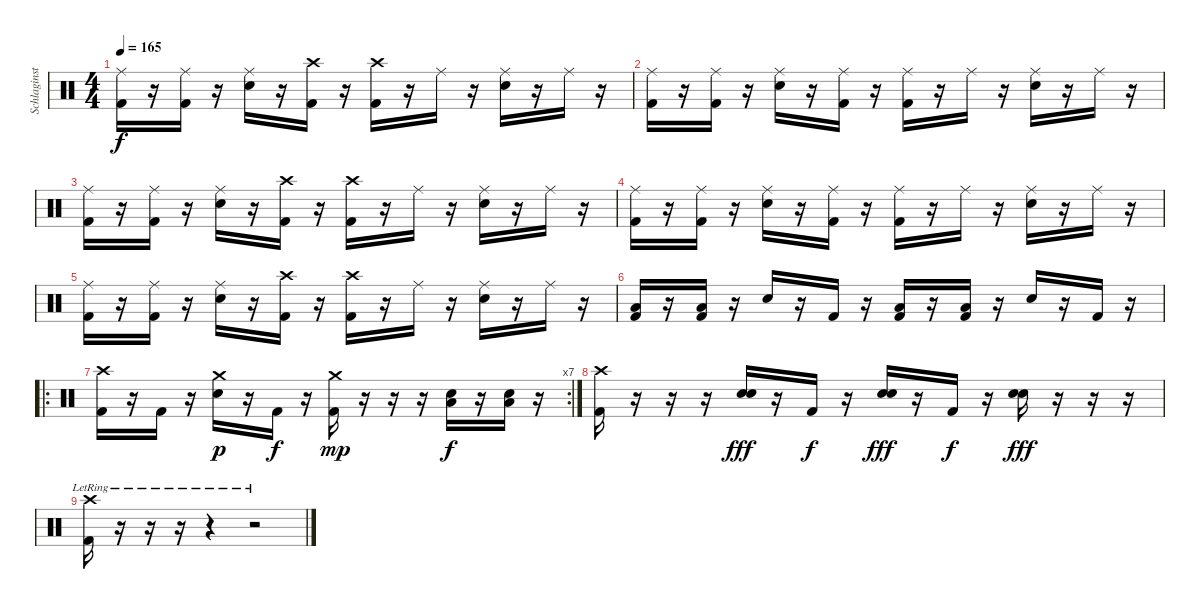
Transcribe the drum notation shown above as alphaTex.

\track ("Schlaginstrumente - Auswahl" "Schlaginst") {instrument percussion}
\staff {score}
\articulation defaults
\ts (4 4)
\tempo 165
\clef neutral
\ks c
("Ride (middle)" "Kick (hit) 2").16{dy f} r.16 ("Ride (middle)" "Kick (hit) 2").16 r.16 ("Ride (middle)" "Electric Snare (hit)").16 r.16 ("Crash high (hit)" "Kick (hit) 2").16 r.16 ("Crash high (hit)" "Kick (hit) 2").16 r.16 "Ride (middle)".16 r.16 ("Ride (middle)" "Electric Snare (hit)").16 r.16 "Ride (middle)".16 r.16 |
("Ride (middle)" "Kick (hit) 2").16 r.16 ("Ride (middle)" "Kick (hit) 2").16 r.16 ("Ride (middle)" "Electric Snare (hit)").16 r.16 ("Ride (middle)" "Kick (hit) 2").16 r.16 ("Ride (middle)" "Kick (hit) 2").16 r.16 "Ride (middle)".16 r.16 ("Ride (middle)" "Electric Snare (hit)").16 r.16 "Ride (middle)".16 r.16 |
("Ride (middle)" "Kick (hit) 2").16 r.16 ("Ride (middle)" "Kick (hit) 2").16 r.16 ("Ride (middle)" "Electric Snare (hit)").16 r.16 ("Crash high (hit)" "Kick (hit) 2").16 r.16 ("Crash high (hit)" "Kick (hit) 2").16 r.16 "Ride (middle)".16 r.16 ("Ride (middle)" "Electric Snare (hit)").16 r.16 "Ride (middle)".16 r.16 |
("Ride (middle)" "Kick (hit) 2").16 r.16 ("Ride (middle)" "Kick (hit) 2").16 r.16 ("Ride (middle)" "Electric Snare (hit)").16 r.16 ("Ride (middle)" "Kick (hit) 2").16 r.16 ("Ride (middle)" "Kick (hit) 2").16 r.16 "Ride (middle)".16 r.16 ("Ride (middle)" "Electric Snare (hit)").16 r.16 "Ride (middle)".16 r.16 |
("Ride (middle)" "Kick (hit) 2").16 r.16 ("Ride (middle)" "Kick (hit) 2").16 r.16 ("Ride (middle)" "Electric Snare (hit)").16 r.16 ("Crash high (hit)" "Kick (hit) 2").16 r.16 ("Crash high (hit)" "Kick (hit) 2").16 r.16 "Ride (middle)".16 r.16 ("Ride (middle)" "Electric Snare (hit)").16 r.16 "Ride (middle)".16 r.16 |
("Low Floor Tom (hit)" "Kick (hit) 2").16 r.16 ("Low Floor Tom (hit)" "Kick (hit) 2").16 r.16 "Electric Snare (hit)".16 r.16 "Kick (hit) 2".16 r.16 ("Low Floor Tom (hit)" "Kick (hit) 2").16 r.16 ("Low Floor Tom (hit)" "Kick (hit) 2").16 r.16 "Electric Snare (hit)".16 r.16 "Kick (hit) 2".16 r.16 |
\ro
\rc 7
("Crash high (hit)" "Kick (hit) 2").16 r.16 "Kick (hit) 2".16 r.16 ("Crash medium (hit)" "Electric Snare (hit)").16{dy p} r.16 "Kick (hit) 2".16{dy f} r.16 ("Crash medium (hit)" "Kick (hit) 2").16{dy mp} r.16 r.16 r.16 ("Electric Snare (hit)" "Low Floor Tom (hit)").16{dy f} r.16 ("Electric Snare (hit)" "Low Floor Tom (hit)").16 r.16 |
("Crash high (hit)" "Kick (hit) 2").16 r.16 r.16 r.16 ("Electric Snare (hit)" "Electric Snare (hit)").16{dy fff} r.16 "Kick (hit) 2".16{dy f} r.16 ("Electric Snare (hit)" "Electric Snare (hit)").16{dy fff} r.16 "Kick (hit) 2".16{dy f} r.16 ("Electric Snare (hit)" "Electric Snare (hit)").16{dy fff} r.16 r.16 r.16 |
("Crash high (hit)"{lr} "Kick (hit) 2").16 r.16 r.16 r.16 r.4 r.2
